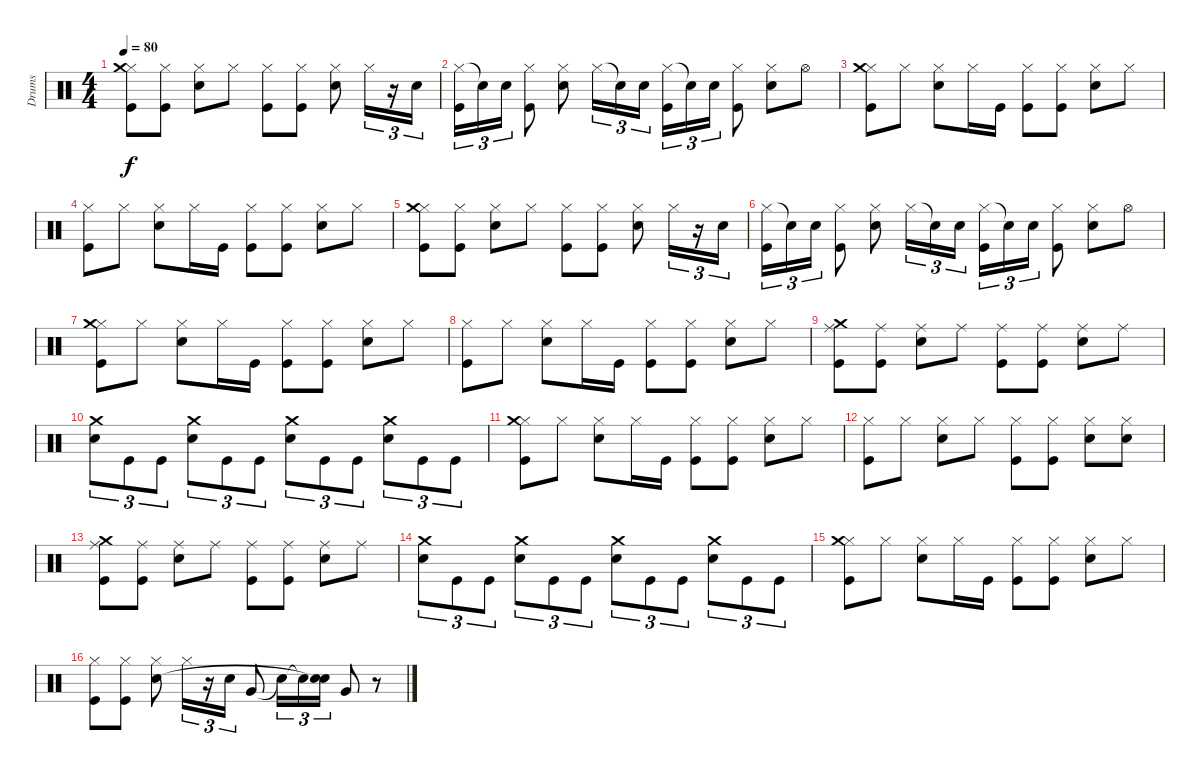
\track ("Drums" "Drums") {instrument percussion}
\staff {score}
\articulation defaults
\ts (4 4)
\section ("" "")
\tempo 80
\clef neutral
\ks c
("Hi-Hat (closed)" "Crash medium (hit)" "Kick (hit)").8{dy f} ("Hi-Hat (closed)" "Kick (hit)").8 ("Hi-Hat (closed)" "Snare (hit) 2").8 "Hi-Hat (closed)".8 ("Hi-Hat (closed)" "Kick (hit)").8 ("Hi-Hat (closed)" "Kick (hit)").8 ("Hi-Hat (closed)" "Snare (hit) 2").8 "Hi-Hat (closed)".16{tu (3 2)} r.16{tu (3 2)} "Snare (hit) 2".16{tu (3 2)} |
("Hi-Hat (closed)" "Kick (hit)").16{tu (3 2)} "Snare (hit)"{t}.16{tu (3 2)} "Snare (hit) 2".16{tu (3 2)} ("Hi-Hat (closed)" "Kick (hit)").8 ("Hi-Hat (closed)" "Snare (hit) 2").8 "Hi-Hat (closed)".16{tu (3 2)} "Snare (hit)"{t}.16{tu (3 2)} "Snare (hit) 2".16{tu (3 2)} ("Hi-Hat (closed)" "Kick (hit)").16{tu (3 2)} "Snare (hit)"{t}.16{tu (3 2)} "Snare (hit) 2".16{tu (3 2)} ("Hi-Hat (closed)" "Kick (hit)").8 ("Hi-Hat (closed)" "Snare (hit) 2").8 "Hi-Hat (open)".8 |
("Hi-Hat (closed)" "Crash medium (hit)" "Kick (hit)").8 "Hi-Hat (closed)".8 ("Hi-Hat (closed)" "Snare (hit) 2").8 "Hi-Hat (closed)".16 "Kick (hit)".16 ("Hi-Hat (closed)" "Kick (hit)").8 ("Hi-Hat (closed)" "Kick (hit)").8 ("Hi-Hat (closed)" "Snare (hit) 2").8 "Hi-Hat (closed)".8 |
("Hi-Hat (closed)" "Kick (hit)").8 "Hi-Hat (closed)".8 ("Hi-Hat (closed)" "Snare (hit) 2").8 "Hi-Hat (closed)".16 "Kick (hit)".16 ("Hi-Hat (closed)" "Kick (hit)").8 ("Hi-Hat (closed)" "Kick (hit)").8 ("Hi-Hat (closed)" "Snare (hit) 2").8 "Hi-Hat (closed)".8 |
("Hi-Hat (closed)" "Crash medium (hit)" "Kick (hit)").8 ("Hi-Hat (closed)" "Kick (hit)").8 ("Hi-Hat (closed)" "Snare (hit) 2").8 "Hi-Hat (closed)".8 ("Hi-Hat (closed)" "Kick (hit)").8 ("Hi-Hat (closed)" "Kick (hit)").8 ("Hi-Hat (closed)" "Snare (hit) 2").8 "Hi-Hat (closed)".16{tu (3 2)} r.16{tu (3 2)} "Snare (hit) 2".16{tu (3 2)} |
("Hi-Hat (closed)" "Kick (hit)").16{tu (3 2)} "Snare (hit)"{t}.16{tu (3 2)} "Snare (hit) 2".16{tu (3 2)} ("Hi-Hat (closed)" "Kick (hit)").8 ("Hi-Hat (closed)" "Snare (hit) 2").8 "Hi-Hat (closed)".16{tu (3 2)} "Snare (hit)"{t}.16{tu (3 2)} "Snare (hit) 2".16{tu (3 2)} ("Hi-Hat (closed)" "Kick (hit)").16{tu (3 2)} "Snare (hit)"{t}.16{tu (3 2)} "Snare (hit) 2".16{tu (3 2)} ("Hi-Hat (closed)" "Kick (hit)").8 ("Hi-Hat (closed)" "Snare (hit) 2").8 "Hi-Hat (open)".8 |
("Hi-Hat (closed)" "Crash medium (hit)" "Kick (hit)").8 "Hi-Hat (closed)".8 ("Hi-Hat (closed)" "Snare (hit) 2").8 "Hi-Hat (closed)".16 "Kick (hit)".16 ("Hi-Hat (closed)" "Kick (hit)").8 ("Hi-Hat (closed)" "Kick (hit)").8 ("Hi-Hat (closed)" "Snare (hit) 2").8 "Hi-Hat (closed)".8 |
("Hi-Hat (closed)" "Kick (hit)").8 "Hi-Hat (closed)".8 ("Hi-Hat (closed)" "Snare (hit) 2").8 "Hi-Hat (closed)".16 "Kick (hit)".16 ("Hi-Hat (closed)" "Kick (hit)").8 ("Hi-Hat (closed)" "Kick (hit)").8 ("Hi-Hat (closed)" "Snare (hit) 2").8 "Hi-Hat (closed)".8 |
("Ride (middle)" "Crash medium (hit)" "Kick (hit)").8 ("Ride (middle)" "Kick (hit)").8 ("Ride (middle)" "Snare (hit) 2").8 "Ride (middle)".8 ("Ride (middle)" "Kick (hit)").8 ("Ride (middle)" "Kick (hit)").8 ("Ride (middle)" "Snare (hit) 2").8 "Ride (middle)".8 |
("Crash medium (hit)" "Snare (hit) 2").8{tu (3 2)} "Kick (hit)".8{tu (3 2)} "Kick (hit)".8{tu (3 2)} ("Crash medium (hit)" "Snare (hit) 2").8{tu (3 2)} "Kick (hit)".8{tu (3 2)} "Kick (hit)".8{tu (3 2)} ("Crash medium (hit)" "Snare (hit) 2").8{tu (3 2)} "Kick (hit)".8{tu (3 2)} "Kick (hit)".8{tu (3 2)} ("Crash medium (hit)" "Snare (hit) 2").8{tu (3 2)} "Kick (hit)".8{tu (3 2)} "Kick (hit)".8{tu (3 2)} |
("Hi-Hat (closed)" "Crash medium (hit)" "Kick (hit)").8 "Hi-Hat (closed)".8 ("Hi-Hat (closed)" "Snare (hit) 2").8 "Hi-Hat (closed)".16 "Kick (hit)".16 ("Hi-Hat (closed)" "Kick (hit)").8 ("Hi-Hat (closed)" "Kick (hit)").8 ("Hi-Hat (closed)" "Snare (hit) 2").8 "Hi-Hat (closed)".8 |
("Hi-Hat (closed)" "Kick (hit)").8 "Hi-Hat (closed)".8 ("Hi-Hat (closed)" "Snare (hit) 2").8 "Hi-Hat (closed)".8 ("Hi-Hat (closed)" "Kick (hit)").8 ("Hi-Hat (closed)" "Kick (hit)").8 ("Hi-Hat (closed)" "Snare (hit) 2").8 ("Hi-Hat (closed)" "Snare (hit) 2").8 |
("Ride (middle)" "Crash medium (hit)" "Kick (hit)").8 ("Ride (middle)" "Kick (hit)").8 ("Ride (middle)" "Snare (hit) 2").8 "Ride (middle)".8 ("Ride (middle)" "Kick (hit)").8 ("Ride (middle)" "Kick (hit)").8 ("Ride (middle)" "Snare (hit) 2").8 "Ride (middle)".8 |
("Crash medium (hit)" "Snare (hit) 2").8{tu (3 2)} "Kick (hit)".8{tu (3 2)} "Kick (hit)".8{tu (3 2)} ("Crash medium (hit)" "Snare (hit) 2").8{tu (3 2)} "Kick (hit)".8{tu (3 2)} "Kick (hit)".8{tu (3 2)} ("Crash medium (hit)" "Snare (hit) 2").8{tu (3 2)} "Kick (hit)".8{tu (3 2)} "Kick (hit)".8{tu (3 2)} ("Crash medium (hit)" "Snare (hit) 2").8{tu (3 2)} "Kick (hit)".8{tu (3 2)} "Kick (hit)".8{tu (3 2)} |
("Hi-Hat (closed)" "Crash medium (hit)" "Kick (hit)").8 "Hi-Hat (closed)".8 ("Hi-Hat (closed)" "Snare (hit) 2").8 "Hi-Hat (closed)".16 "Kick (hit)".16 ("Hi-Hat (closed)" "Kick (hit)").8 ("Hi-Hat (closed)" "Kick (hit)").8 ("Hi-Hat (closed)" "Snare (hit) 2").8 "Hi-Hat (closed)".8 |
("Hi-Hat (closed)" "Kick (hit)").8 ("Hi-Hat (closed)" "Kick (hit)").8 ("Hi-Hat (closed)" "Snare (hit) 2").8 "Hi-Hat (closed)".16{tu (3 2)} r.16{tu (3 2)} "Snare (hit) 2".16{tu (3 2)} "Very Low Tom (hit)".8 "Snare (hit)"{t}.16{tu (3 2)} "Snare (hit)"{t}.16{tu (3 2)} ("Snare (hit) 2" "Snare (hit)"{t}).16{tu (3 2)} "Very Low Tom (hit)".8 r.8
